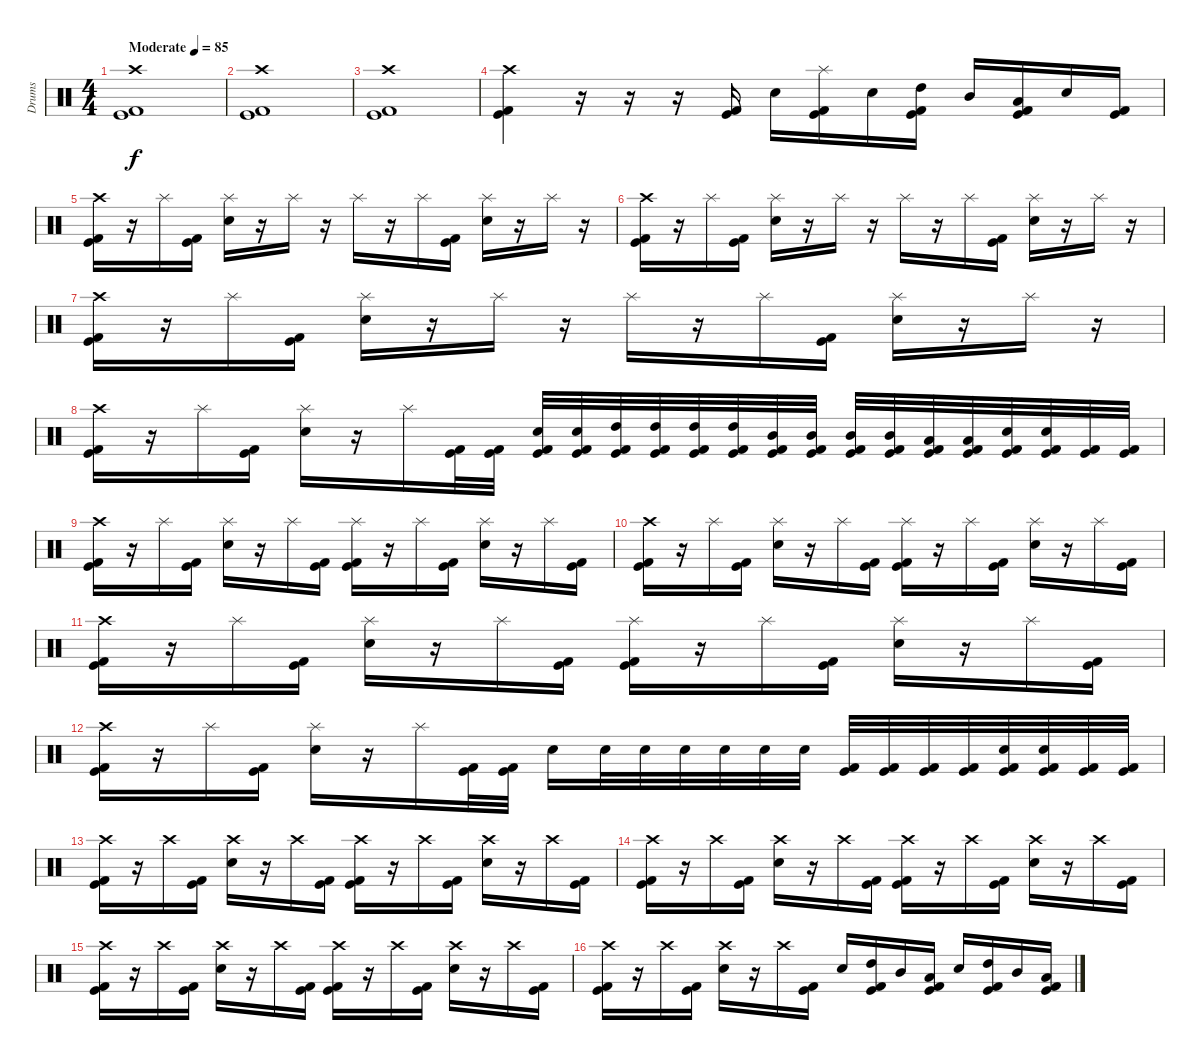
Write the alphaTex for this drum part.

\track ("Drums" "Drums") {instrument percussion}
\staff {score}
\articulation defaults
\ts (4 4)
\tempo (85 "Moderate")
\clef neutral
\ks c
("Crash high (hit)" "Kick (hit) 2" "Kick (hit)").1{dy f} |
("Crash high (hit)" "Kick (hit) 2" "Kick (hit)").1 |
("Crash high (hit)" "Kick (hit) 2" "Kick (hit)").1 |
("Crash high (hit)" "Kick (hit) 2" "Kick (hit)").4 r.16 r.16 r.16 ("Kick (hit) 2" "Kick (hit)").16 "Snare (hit) 2".16 ("Splash (hit)" "Kick (hit) 2" "Kick (hit)").16 "Snare (hit) 2".16 ("High Tom (hit)" "Kick (hit) 2" "Kick (hit)").16 "Mid Tom (hit)".16 ("Low Tom (hit)" "Kick (hit) 2" "Kick (hit)").16 "Snare (hit) 2".16 ("Kick (hit) 2" "Kick (hit)").16 |
("Crash high (hit)" "Kick (hit)" "Kick (hit) 2").16 r.16 "Splash (hit)".16 ("Kick (hit)" "Kick (hit) 2").16 ("Splash (hit)" "Snare (hit) 2").16 r.16 "Splash (hit)".16 r.16 "Splash (hit)".16 r.16 "Splash (hit)".16 ("Kick (hit)" "Kick (hit) 2").16 ("Splash (hit)" "Snare (hit) 2").16 r.16 "Splash (hit)".16 r.16 |
("Crash high (hit)" "Kick (hit)" "Kick (hit) 2").16 r.16 "Splash (hit)".16 ("Kick (hit)" "Kick (hit) 2").16 ("Splash (hit)" "Snare (hit) 2").16 r.16 "Splash (hit)".16 r.16 "Splash (hit)".16 r.16 "Splash (hit)".16 ("Kick (hit)" "Kick (hit) 2").16 ("Splash (hit)" "Snare (hit) 2").16 r.16 "Splash (hit)".16 r.16 |
("Crash high (hit)" "Kick (hit)" "Kick (hit) 2").16 r.16 "Splash (hit)".16 ("Kick (hit)" "Kick (hit) 2").16 ("Splash (hit)" "Snare (hit) 2").16 r.16 "Splash (hit)".16 r.16 "Splash (hit)".16 r.16 "Splash (hit)".16 ("Kick (hit)" "Kick (hit) 2").16 ("Splash (hit)" "Snare (hit) 2").16 r.16 "Splash (hit)".16 r.16 |
("Crash high (hit)" "Kick (hit)" "Kick (hit) 2").16 r.16 "Splash (hit)".16 ("Kick (hit)" "Kick (hit) 2").16 ("Splash (hit)" "Snare (hit) 2").16 r.16 "Splash (hit)".16 ("Kick (hit) 2" "Kick (hit)").32 ("Kick (hit) 2" "Kick (hit)").32 ("Snare (hit) 2" "Kick (hit) 2" "Kick (hit)").32 ("Snare (hit) 2" "Kick (hit) 2" "Kick (hit)").32 ("High Tom (hit)" "Kick (hit) 2" "Kick (hit)").32 ("High Tom (hit)" "Kick (hit) 2" "Kick (hit)").32 ("High Tom (hit)" "Kick (hit) 2" "Kick (hit)").32 ("High Tom (hit)" "Kick (hit) 2" "Kick (hit)").32 ("Mid Tom (hit)" "Kick (hit) 2" "Kick (hit)").32 ("Mid Tom (hit)" "Kick (hit) 2" "Kick (hit)").32 ("Mid Tom (hit)" "Kick (hit) 2" "Kick (hit)").32 ("Mid Tom (hit)" "Kick (hit) 2" "Kick (hit)").32 ("Low Tom (hit)" "Kick (hit) 2" "Kick (hit)").32 ("Low Tom (hit)" "Kick (hit) 2" "Kick (hit)").32 ("Snare (hit) 2" "Kick (hit) 2" "Kick (hit)").32 ("Snare (hit) 2" "Kick (hit) 2" "Kick (hit)").32 ("Kick (hit) 2" "Kick (hit)").32 ("Kick (hit) 2" "Kick (hit)").32 |
("Crash high (hit)" "Kick (hit)" "Kick (hit) 2").16 r.16 "Splash (hit)".16 ("Kick (hit)" "Kick (hit) 2").16 ("Splash (hit)" "Snare (hit) 2").16 r.16 "Splash (hit)".16 ("Kick (hit) 2" "Kick (hit)").16 ("Splash (hit)" "Kick (hit) 2" "Kick (hit)").16 r.16 "Splash (hit)".16 ("Kick (hit)" "Kick (hit) 2").16 ("Splash (hit)" "Snare (hit) 2").16 r.16 "Splash (hit)".16 ("Kick (hit) 2" "Kick (hit)").16 |
("Crash high (hit)" "Kick (hit)" "Kick (hit) 2").16 r.16 "Splash (hit)".16 ("Kick (hit)" "Kick (hit) 2").16 ("Splash (hit)" "Snare (hit) 2").16 r.16 "Splash (hit)".16 ("Kick (hit) 2" "Kick (hit)").16 ("Splash (hit)" "Kick (hit) 2" "Kick (hit)").16 r.16 "Splash (hit)".16 ("Kick (hit)" "Kick (hit) 2").16 ("Splash (hit)" "Snare (hit) 2").16 r.16 "Splash (hit)".16 ("Kick (hit) 2" "Kick (hit)").16 |
("Crash high (hit)" "Kick (hit)" "Kick (hit) 2").16 r.16 "Splash (hit)".16 ("Kick (hit)" "Kick (hit) 2").16 ("Splash (hit)" "Snare (hit) 2").16 r.16 "Splash (hit)".16 ("Kick (hit) 2" "Kick (hit)").16 ("Splash (hit)" "Kick (hit) 2" "Kick (hit)").16 r.16 "Splash (hit)".16 ("Kick (hit)" "Kick (hit) 2").16 ("Splash (hit)" "Snare (hit) 2").16 r.16 "Splash (hit)".16 ("Kick (hit) 2" "Kick (hit)").16 |
("Crash high (hit)" "Kick (hit)" "Kick (hit) 2").16 r.16 "Splash (hit)".16 ("Kick (hit)" "Kick (hit) 2").16 ("Splash (hit)" "Snare (hit) 2").16 r.16 "Splash (hit)".16 ("Kick (hit) 2" "Kick (hit)").32 ("Kick (hit) 2" "Kick (hit)").32 "Snare (hit) 2".16 "Snare (hit) 2".32 "Snare (hit) 2".32 "Snare (hit) 2".32 "Snare (hit) 2".32 "Snare (hit) 2".32 "Snare (hit) 2".32 ("Kick (hit) 2" "Kick (hit)").32 ("Kick (hit) 2" "Kick (hit)").32 ("Kick (hit) 2" "Kick (hit)").32 ("Kick (hit) 2" "Kick (hit)").32 ("Snare (hit) 2" "Kick (hit) 2" "Kick (hit)").32 ("Snare (hit) 2" "Kick (hit) 2" "Kick (hit)").32 ("Kick (hit) 2" "Kick (hit)").32 ("Kick (hit) 2" "Kick (hit)").32 |
("Crash high (hit)" "Kick (hit)" "Kick (hit) 2").16 r.16 "Crash high (hit)".16 ("Kick (hit)" "Kick (hit) 2").16 ("Crash high (hit)" "Snare (hit) 2").16 r.16 "Crash high (hit)".16 ("Kick (hit) 2" "Kick (hit)").16 ("Crash high (hit)" "Kick (hit) 2" "Kick (hit)").16 r.16 "Crash high (hit)".16 ("Kick (hit)" "Kick (hit) 2").16 ("Crash high (hit)" "Snare (hit) 2").16 r.16 "Crash high (hit)".16 ("Kick (hit) 2" "Kick (hit)").16 |
("Crash high (hit)" "Kick (hit)" "Kick (hit) 2").16 r.16 "Crash high (hit)".16 ("Kick (hit)" "Kick (hit) 2").16 ("Crash high (hit)" "Snare (hit) 2").16 r.16 "Crash high (hit)".16 ("Kick (hit) 2" "Kick (hit)").16 ("Crash high (hit)" "Kick (hit) 2" "Kick (hit)").16 r.16 "Crash high (hit)".16 ("Kick (hit)" "Kick (hit) 2").16 ("Crash high (hit)" "Snare (hit) 2").16 r.16 "Crash high (hit)".16 ("Kick (hit) 2" "Kick (hit)").16 |
("Crash high (hit)" "Kick (hit)" "Kick (hit) 2").16 r.16 "Crash high (hit)".16 ("Kick (hit)" "Kick (hit) 2").16 ("Crash high (hit)" "Snare (hit) 2").16 r.16 "Crash high (hit)".16 ("Kick (hit) 2" "Kick (hit)").16 ("Crash high (hit)" "Kick (hit) 2" "Kick (hit)").16 r.16 "Crash high (hit)".16 ("Kick (hit)" "Kick (hit) 2").16 ("Crash high (hit)" "Snare (hit) 2").16 r.16 "Crash high (hit)".16 ("Kick (hit) 2" "Kick (hit)").16 |
("Crash high (hit)" "Kick (hit)" "Kick (hit) 2").16 r.16 "Crash high (hit)".16 ("Kick (hit)" "Kick (hit) 2").16 ("Crash high (hit)" "Snare (hit) 2").16 r.16 "Crash high (hit)".16 ("Kick (hit) 2" "Kick (hit)").16 "Snare (hit) 2".16 ("High Tom (hit)" "Kick (hit) 2" "Kick (hit)").16 "Mid Tom (hit)".16 ("Low Tom (hit)" "Kick (hit) 2" "Kick (hit)").16 "Snare (hit) 2".16 ("High Tom (hit)" "Kick (hit) 2" "Kick (hit)").16 "Mid Tom (hit)".16 ("Low Tom (hit)" "Kick (hit)" "Kick (hit) 2").16
